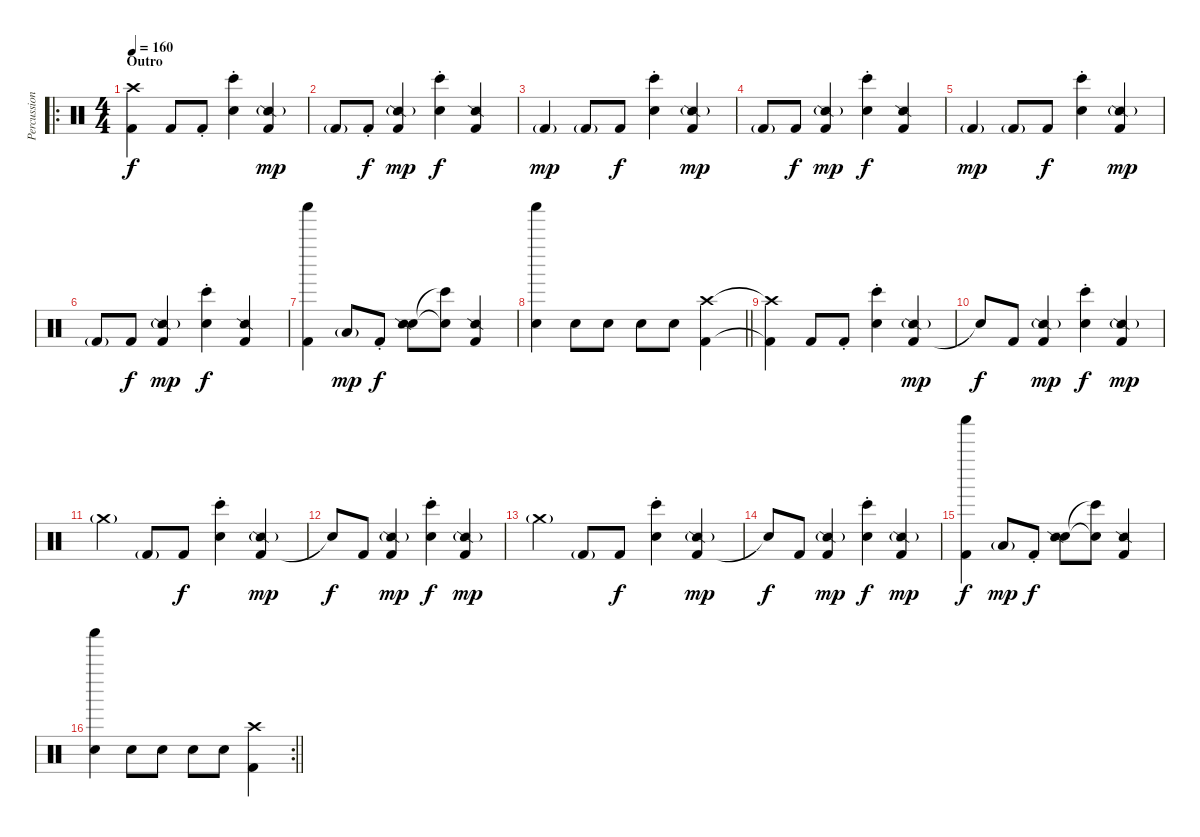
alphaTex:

\track ("Percussion" "Percussion") {instrument percussion}
\staff {score}
\articulation defaults
\ro
\ts (4 4)
\section ("" "Outro")
\tempo 160
\clef neutral
\ks c
("Kick (hit) 2"{t} "Crash high (hit)"{t}).4{dy f} "Kick (hit) 2".8 "Kick (hit) 2"{st}.8 ("Electric Snare (hit)" "Bongo High (hit)"{st}).4 ("Kick (hit) 2" "Snare (side stick) 2"{g}).4{dy mp} |
"Kick (hit) 2"{g}.8 "Kick (hit) 2"{st}.8{dy f} ("Kick (hit) 2" "Snare (side stick) 2"{g}).4{dy mp} ("Electric Snare (hit)" "Bongo High (hit)"{st}).4{dy f} ("Kick (hit) 2" "Snare (side stick) 2").4 |
"Kick (hit) 2"{g}.4{dy mp} "Kick (hit) 2"{g}.8 "Kick (hit) 2".8{dy f} ("Electric Snare (hit)" "Bongo High (hit)"{st}).4 ("Kick (hit) 2" "Snare (side stick) 2"{g}).4{dy mp} |
"Kick (hit) 2"{g}.8 "Kick (hit) 2".8{dy f} ("Kick (hit) 2" "Snare (side stick) 2"{g}).4{dy mp} ("Electric Snare (hit)" "Bongo High (hit)"{st}).4{dy f} ("Kick (hit) 2" "Snare (side stick) 2").4 |
"Kick (hit) 2"{g}.4{dy mp} "Kick (hit) 2"{g}.8 "Kick (hit) 2".8{dy f} ("Electric Snare (hit)" "Bongo High (hit)"{st}).4 ("Kick (hit) 2" "Snare (side stick) 2"{g}).4{dy mp} |
"Kick (hit) 2"{g}.8 "Kick (hit) 2".8{dy f} ("Kick (hit) 2" "Snare (side stick) 2"{g}).4{dy mp} ("Electric Snare (hit)" "Bongo High (hit)"{st}).4{dy f} ("Kick (hit) 2" "Snare (side stick) 2").4 |
("Kick (hit) 2" "Shaker (hit)").4 "Low Tom (hit)"{g}.8{dy mp} "Kick (hit) 2"{st}.8{dy f} ("Electric Snare (hit)" "Snare (side stick) 2").8 ("Electric Snare (hit)"{t} "Bongo High (hit)"{t}).8 ("Kick (hit) 2" "Snare (side stick) 2").4 |
\barLineRight lightlight
("Electric Snare (hit)" "Shaker (hit)").4 "Electric Snare (hit)".8 "Electric Snare (hit)".8 "Electric Snare (hit)".8 "Electric Snare (hit)".8 ("Kick (hit) 2" "Crash high (hit)").4 |
("Kick (hit) 2"{t} "Crash high (hit)"{t}).4 "Kick (hit) 2".8 "Kick (hit) 2"{st}.8 ("Electric Snare (hit)" "Bongo High (hit)"{st}).4 ("Kick (hit) 2" "Snare (side stick) 2"{g}).4{dy mp} |
"Snare (hit)"{t}.8{dy f} "Kick (hit) 2".8 ("Kick (hit) 2" "Snare (side stick) 2"{g}).4{dy mp} ("Electric Snare (hit)" "Bongo High (hit)"{st}).4{dy f} ("Kick (hit) 2" "Snare (side stick) 2"{g}).4{dy mp} |
"Crash medium (hit)"{g}.4 "Kick (hit) 2"{g}.8 "Kick (hit) 2".8{dy f} ("Electric Snare (hit)" "Bongo High (hit)"{st}).4 ("Kick (hit) 2" "Snare (side stick) 2"{g}).4{dy mp} |
"Snare (hit)"{t}.8{dy f} "Kick (hit) 2".8 ("Kick (hit) 2" "Snare (side stick) 2"{g}).4{dy mp} ("Electric Snare (hit)" "Bongo High (hit)"{st}).4{dy f} ("Kick (hit) 2" "Snare (side stick) 2"{g}).4{dy mp} |
"Crash medium (hit)"{g}.4 "Kick (hit) 2"{g}.8 "Kick (hit) 2".8{dy f} ("Electric Snare (hit)" "Bongo High (hit)"{st}).4 ("Kick (hit) 2" "Snare (side stick) 2"{g}).4{dy mp} |
"Snare (hit)"{t}.8{dy f} "Kick (hit) 2".8 ("Kick (hit) 2" "Snare (side stick) 2"{g}).4{dy mp} ("Electric Snare (hit)" "Bongo High (hit)"{st}).4{dy f} ("Kick (hit) 2" "Snare (side stick) 2"{g}).4{dy mp} |
("Kick (hit) 2" "Shaker (hit)").4{dy f} "Low Tom (hit)"{g}.8{dy mp} "Kick (hit) 2"{st}.8{dy f} ("Electric Snare (hit)" "Snare (side stick) 2").8 ("Electric Snare (hit)"{t} "Bongo High (hit)"{t}).8 ("Kick (hit) 2" "Snare (side stick) 2").4 |
\rc 2
\barLineRight lightlight
("Electric Snare (hit)" "Shaker (hit)").4 "Electric Snare (hit)".8 "Electric Snare (hit)".8 "Electric Snare (hit)".8 "Electric Snare (hit)".8 ("Kick (hit) 2" "Crash high (hit)").4
